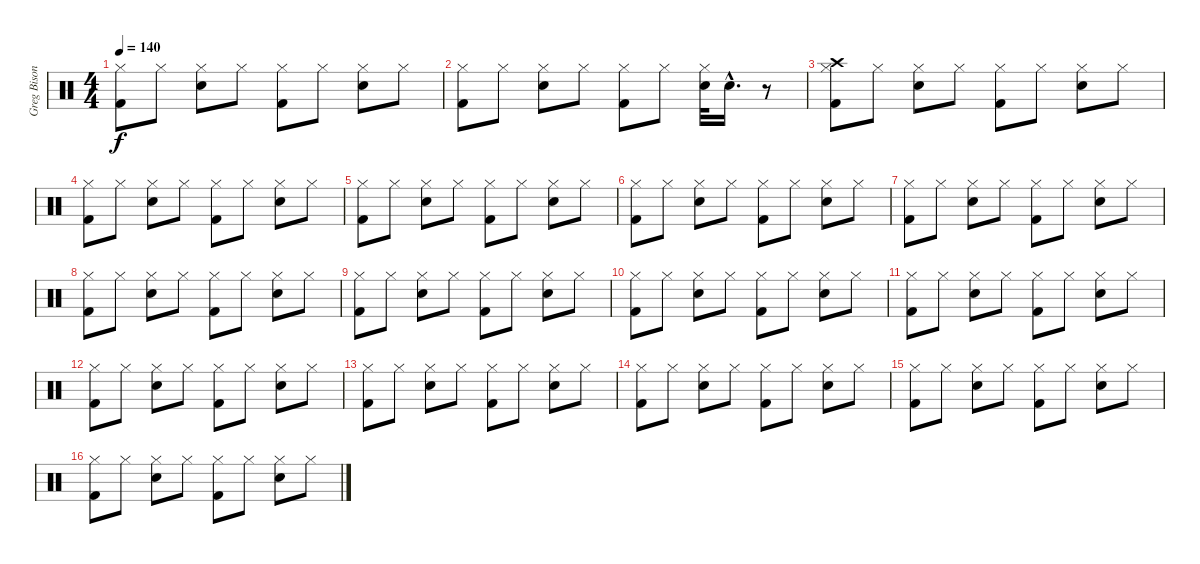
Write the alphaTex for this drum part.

\track ("Greg Bisonette" "Greg Bison") {instrument percussion}
\staff {score}
\articulation defaults
\ts (4 4)
\tempo 140
\clef neutral
\ks c
("Hi-Hat (closed)" "Kick (hit) 2").8{dy f} "Hi-Hat (closed)".8 ("Hi-Hat (closed)" "Electric Snare (hit)").8 "Hi-Hat (closed)".8 ("Hi-Hat (closed)" "Kick (hit) 2").8 "Hi-Hat (closed)".8 ("Hi-Hat (closed)" "Electric Snare (hit)").8 "Hi-Hat (closed)".8 |
("Hi-Hat (closed)" "Kick (hit) 2").8 "Hi-Hat (closed)".8 ("Hi-Hat (closed)" "Electric Snare (hit)").8 "Hi-Hat (closed)".8 ("Hi-Hat (closed)" "Kick (hit) 2").8 "Hi-Hat (closed)".8 ("Hi-Hat (closed)" "Electric Snare (hit)").32 "Electric Snare (hit)"{hac}.16{d} r.8 |
("Hi-Hat (closed)" "Crash high (hit)" "Kick (hit) 2").8 "Hi-Hat (closed)".8 ("Hi-Hat (closed)" "Electric Snare (hit)").8 "Hi-Hat (closed)".8 ("Hi-Hat (closed)" "Kick (hit) 2").8 "Hi-Hat (closed)".8 ("Hi-Hat (closed)" "Electric Snare (hit)").8 "Hi-Hat (closed)".8 |
("Hi-Hat (closed)" "Kick (hit) 2").8 "Hi-Hat (closed)".8 ("Hi-Hat (closed)" "Electric Snare (hit)").8 "Hi-Hat (closed)".8 ("Hi-Hat (closed)" "Kick (hit) 2").8 "Hi-Hat (closed)".8 ("Hi-Hat (closed)" "Electric Snare (hit)").8 "Hi-Hat (closed)".8 |
("Hi-Hat (closed)" "Kick (hit) 2").8 "Hi-Hat (closed)".8 ("Hi-Hat (closed)" "Electric Snare (hit)").8 "Hi-Hat (closed)".8 ("Hi-Hat (closed)" "Kick (hit) 2").8 "Hi-Hat (closed)".8 ("Hi-Hat (closed)" "Electric Snare (hit)").8 "Hi-Hat (closed)".8 |
("Hi-Hat (closed)" "Kick (hit) 2").8 "Hi-Hat (closed)".8 ("Hi-Hat (closed)" "Electric Snare (hit)").8 "Hi-Hat (closed)".8 ("Hi-Hat (closed)" "Kick (hit) 2").8 "Hi-Hat (closed)".8 ("Hi-Hat (closed)" "Electric Snare (hit)").8 "Hi-Hat (closed)".8 |
("Hi-Hat (closed)" "Kick (hit) 2").8 "Hi-Hat (closed)".8 ("Hi-Hat (closed)" "Electric Snare (hit)").8 "Hi-Hat (closed)".8 ("Hi-Hat (closed)" "Kick (hit) 2").8 "Hi-Hat (closed)".8 ("Hi-Hat (closed)" "Electric Snare (hit)").8 "Hi-Hat (closed)".8 |
("Hi-Hat (closed)" "Kick (hit) 2").8 "Hi-Hat (closed)".8 ("Hi-Hat (closed)" "Electric Snare (hit)").8 "Hi-Hat (closed)".8 ("Hi-Hat (closed)" "Kick (hit) 2").8 "Hi-Hat (closed)".8 ("Hi-Hat (closed)" "Electric Snare (hit)").8 "Hi-Hat (closed)".8 |
("Hi-Hat (closed)" "Kick (hit) 2").8 "Hi-Hat (closed)".8 ("Hi-Hat (closed)" "Electric Snare (hit)").8 "Hi-Hat (closed)".8 ("Hi-Hat (closed)" "Kick (hit) 2").8 "Hi-Hat (closed)".8 ("Hi-Hat (closed)" "Electric Snare (hit)").8 "Hi-Hat (closed)".8 |
("Hi-Hat (closed)" "Kick (hit) 2").8 "Hi-Hat (closed)".8 ("Hi-Hat (closed)" "Electric Snare (hit)").8 "Hi-Hat (closed)".8 ("Hi-Hat (closed)" "Kick (hit) 2").8 "Hi-Hat (closed)".8 ("Hi-Hat (closed)" "Electric Snare (hit)").8 "Hi-Hat (closed)".8 |
("Hi-Hat (closed)" "Kick (hit) 2").8 "Hi-Hat (closed)".8 ("Hi-Hat (closed)" "Electric Snare (hit)").8 "Hi-Hat (closed)".8 ("Hi-Hat (closed)" "Kick (hit) 2").8 "Hi-Hat (closed)".8 ("Hi-Hat (closed)" "Electric Snare (hit)").8 "Hi-Hat (closed)".8 |
("Hi-Hat (closed)" "Kick (hit) 2").8 "Hi-Hat (closed)".8 ("Hi-Hat (closed)" "Electric Snare (hit)").8 "Hi-Hat (closed)".8 ("Hi-Hat (closed)" "Kick (hit) 2").8 "Hi-Hat (closed)".8 ("Hi-Hat (closed)" "Electric Snare (hit)").8 "Hi-Hat (closed)".8 |
("Hi-Hat (closed)" "Kick (hit) 2").8 "Hi-Hat (closed)".8 ("Hi-Hat (closed)" "Electric Snare (hit)").8 "Hi-Hat (closed)".8 ("Hi-Hat (closed)" "Kick (hit) 2").8 "Hi-Hat (closed)".8 ("Hi-Hat (closed)" "Electric Snare (hit)").8 "Hi-Hat (closed)".8 |
("Hi-Hat (closed)" "Kick (hit) 2").8 "Hi-Hat (closed)".8 ("Hi-Hat (closed)" "Electric Snare (hit)").8 "Hi-Hat (closed)".8 ("Hi-Hat (closed)" "Kick (hit) 2").8 "Hi-Hat (closed)".8 ("Hi-Hat (closed)" "Electric Snare (hit)").8 "Hi-Hat (closed)".8 |
("Hi-Hat (closed)" "Kick (hit) 2").8 "Hi-Hat (closed)".8 ("Hi-Hat (closed)" "Electric Snare (hit)").8 "Hi-Hat (closed)".8 ("Hi-Hat (closed)" "Kick (hit) 2").8 "Hi-Hat (closed)".8 ("Hi-Hat (closed)" "Electric Snare (hit)").8 "Hi-Hat (closed)".8 |
("Hi-Hat (closed)" "Kick (hit) 2").8 "Hi-Hat (closed)".8 ("Hi-Hat (closed)" "Electric Snare (hit)").8 "Hi-Hat (closed)".8 ("Hi-Hat (closed)" "Kick (hit) 2").8 "Hi-Hat (closed)".8 ("Hi-Hat (closed)" "Electric Snare (hit)").8 "Hi-Hat (closed)".8
